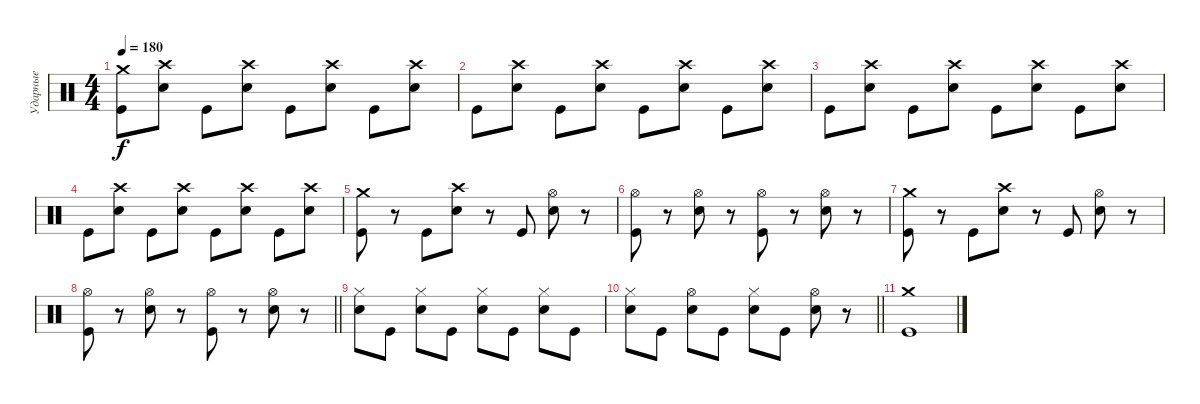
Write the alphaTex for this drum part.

\track ("Ударные" "Ударные") {instrument percussion}
\staff {score}
\articulation defaults
\ts (4 4)
\section ("" " ")
\tempo 180
\clef neutral
\ks c
("Crash medium (hit)" "Kick (hit)").8{dy f} ("Crash high (hit)" "Electric Snare (hit)").8 "Kick (hit)".8 ("Crash high (hit)" "Electric Snare (hit)").8 "Kick (hit)".8 ("Crash high (hit)" "Electric Snare (hit)").8 "Kick (hit)".8 ("Crash high (hit)" "Electric Snare (hit)").8 |
"Kick (hit)".8 ("Crash high (hit)" "Electric Snare (hit)").8 "Kick (hit)".8 ("Crash high (hit)" "Electric Snare (hit)").8 "Kick (hit)".8 ("Crash high (hit)" "Electric Snare (hit)").8 "Kick (hit)".8 ("Crash high (hit)" "Electric Snare (hit)").8 |
"Kick (hit)".8 ("Crash high (hit)" "Electric Snare (hit)").8 "Kick (hit)".8 ("Crash high (hit)" "Electric Snare (hit)").8 "Kick (hit)".8 ("Crash high (hit)" "Electric Snare (hit)").8 "Kick (hit)".8 ("Crash high (hit)" "Electric Snare (hit)").8 |
"Kick (hit)".8 ("Crash high (hit)" "Electric Snare (hit)").8 "Kick (hit)".8 ("Crash high (hit)" "Electric Snare (hit)").8 "Kick (hit)".8 ("Crash high (hit)" "Electric Snare (hit)").8 "Kick (hit)".8 ("Crash high (hit)" "Electric Snare (hit)").8 |
("Crash medium (hit)" "Kick (hit)").8 r.8 "Kick (hit)".8 ("Crash high (hit)" "Electric Snare (hit)").8 r.8 "Kick (hit)".8 ("Hi-Hat (open)" "Electric Snare (hit)").8 r.8 |
("Hi-Hat (open)" "Kick (hit)").8 r.8 ("Hi-Hat (open)" "Electric Snare (hit)").8 r.8 ("Hi-Hat (open)" "Kick (hit)").8 r.8 ("Hi-Hat (open)" "Electric Snare (hit)").8 r.8 |
("Crash medium (hit)" "Kick (hit)").8 r.8 "Kick (hit)".8 ("Crash high (hit)" "Electric Snare (hit)").8 r.8 "Kick (hit)".8 ("Hi-Hat (open)" "Electric Snare (hit)").8 r.8 |
\barLineRight lightlight
("Hi-Hat (open)" "Kick (hit)").8 r.8 ("Hi-Hat (open)" "Electric Snare (hit)").8 r.8 ("Hi-Hat (open)" "Kick (hit)").8 r.8 ("Hi-Hat (open)" "Electric Snare (hit)").8 r.8 |
\section ("" " ")
("Hi-Hat (closed)" "Electric Snare (hit)").8 "Kick (hit)".8 ("Hi-Hat (closed)" "Electric Snare (hit)").8 "Kick (hit)".8 ("Hi-Hat (closed)" "Electric Snare (hit)").8 "Kick (hit)".8 ("Hi-Hat (closed)" "Electric Snare (hit)").8 "Kick (hit)".8 |
\barLineRight lightlight
("Hi-Hat (closed)" "Electric Snare (hit)").8 "Kick (hit)".8 ("Hi-Hat (open)" "Electric Snare (hit)").8 "Kick (hit)".8 ("Hi-Hat (closed)" "Electric Snare (hit)").8 "Kick (hit)".8 ("Hi-Hat (open)" "Electric Snare (hit)").8 r.8 |
("Crash medium (hit)" "Kick (hit)").1
